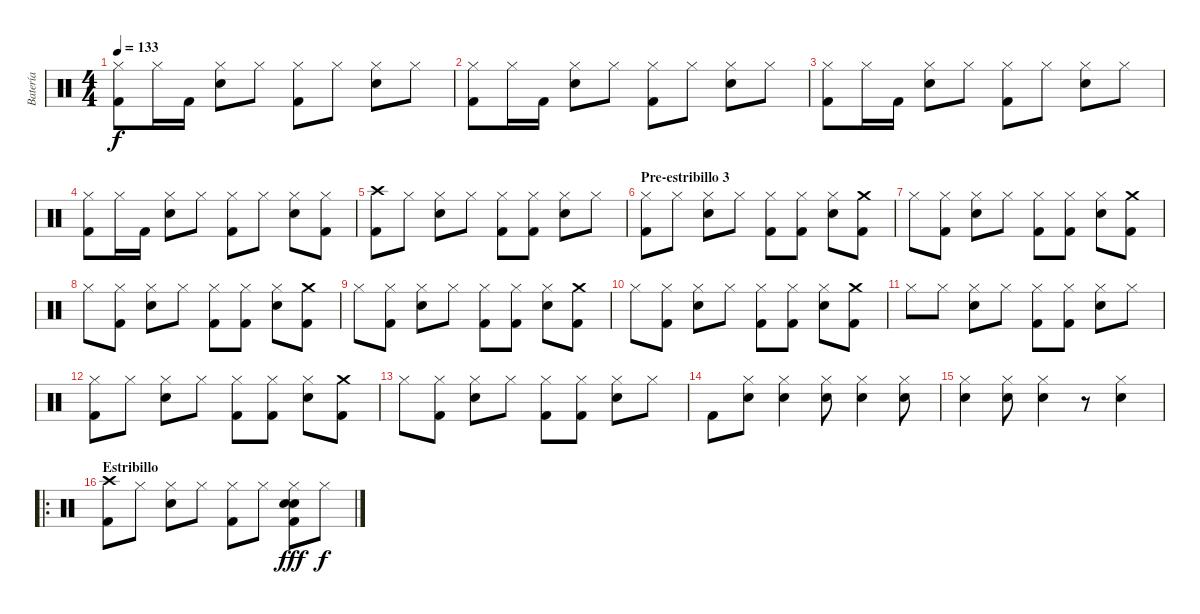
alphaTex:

\track ("Batería" "Batería") {instrument percussion}
\staff {score}
\articulation defaults
\ts (4 4)
\tempo 133
\clef neutral
\ks c
("Hi-Hat (closed)" "Kick (hit) 2").8{dy f} "Hi-Hat (closed)".16 "Kick (hit) 2".16 ("Hi-Hat (closed)" "Snare (hit) 2").8 "Hi-Hat (closed)".8 ("Hi-Hat (closed)" "Kick (hit) 2").8 "Hi-Hat (closed)".8 ("Hi-Hat (closed)" "Snare (hit) 2").8 "Hi-Hat (closed)".8 |
("Hi-Hat (closed)" "Kick (hit) 2").8 "Hi-Hat (closed)".16 "Kick (hit) 2".16 ("Hi-Hat (closed)" "Snare (hit) 2").8 "Hi-Hat (closed)".8 ("Hi-Hat (closed)" "Kick (hit) 2").8 "Hi-Hat (closed)".8 ("Hi-Hat (closed)" "Snare (hit) 2").8 "Hi-Hat (closed)".8 |
("Hi-Hat (closed)" "Kick (hit) 2").8 "Hi-Hat (closed)".16 "Kick (hit) 2".16 ("Hi-Hat (closed)" "Snare (hit) 2").8 "Hi-Hat (closed)".8 ("Hi-Hat (closed)" "Kick (hit) 2").8 "Hi-Hat (closed)".8 ("Hi-Hat (closed)" "Snare (hit) 2").8 "Hi-Hat (closed)".8 |
("Hi-Hat (closed)" "Kick (hit) 2").8 "Hi-Hat (closed)".16 "Kick (hit) 2".16 ("Hi-Hat (closed)" "Snare (hit) 2").8 "Hi-Hat (closed)".8 ("Hi-Hat (closed)" "Kick (hit) 2").8 "Hi-Hat (closed)".8 ("Hi-Hat (closed)" "Snare (hit) 2").8 ("Hi-Hat (closed)" "Kick (hit) 2").8 |
("Crash high (hit)" "Kick (hit) 2").8 "Hi-Hat (closed)".8 ("Hi-Hat (closed)" "Snare (hit) 2").8 "Hi-Hat (closed)".8 ("Hi-Hat (closed)" "Kick (hit) 2").8 ("Hi-Hat (closed)" "Kick (hit) 2").8 ("Hi-Hat (closed)" "Snare (hit) 2").8 "Hi-Hat (closed)".8 |
\section ("" "Pre-estribillo 3")
("Hi-Hat (closed)" "Kick (hit) 2").8 "Hi-Hat (closed)".8 ("Hi-Hat (closed)" "Snare (hit) 2").8 "Hi-Hat (closed)".8 ("Hi-Hat (closed)" "Kick (hit) 2").8 ("Hi-Hat (closed)" "Kick (hit) 2").8 ("Hi-Hat (closed)" "Snare (hit) 2").8 ("Crash medium (hit)" "Kick (hit) 2").8 |
"Hi-Hat (closed)".8 ("Hi-Hat (closed)" "Kick (hit) 2").8 ("Hi-Hat (closed)" "Snare (hit) 2").8 "Hi-Hat (closed)".8 ("Hi-Hat (closed)" "Kick (hit) 2").8 ("Hi-Hat (closed)" "Kick (hit) 2").8 ("Hi-Hat (closed)" "Snare (hit) 2").8 ("Crash medium (hit)" "Kick (hit) 2").8 |
"Hi-Hat (closed)".8 ("Hi-Hat (closed)" "Kick (hit) 2").8 ("Hi-Hat (closed)" "Snare (hit) 2").8 "Hi-Hat (closed)".8 ("Hi-Hat (closed)" "Kick (hit) 2").8 ("Hi-Hat (closed)" "Kick (hit) 2").8 ("Hi-Hat (closed)" "Snare (hit) 2").8 ("Crash medium (hit)" "Kick (hit) 2").8 |
"Hi-Hat (closed)".8 ("Hi-Hat (closed)" "Kick (hit) 2").8 ("Hi-Hat (closed)" "Snare (hit) 2").8 "Hi-Hat (closed)".8 ("Hi-Hat (closed)" "Kick (hit) 2").8 ("Hi-Hat (closed)" "Kick (hit) 2").8 ("Hi-Hat (closed)" "Snare (hit) 2").8 ("Crash medium (hit)" "Kick (hit) 2").8 |
"Hi-Hat (closed)".8 ("Hi-Hat (closed)" "Kick (hit) 2").8 ("Hi-Hat (closed)" "Snare (hit) 2").8 "Hi-Hat (closed)".8 ("Hi-Hat (closed)" "Kick (hit) 2").8 ("Hi-Hat (closed)" "Kick (hit) 2").8 ("Hi-Hat (closed)" "Snare (hit) 2").8 ("Crash medium (hit)" "Kick (hit) 2").8 |
"Hi-Hat (closed)".8 "Hi-Hat (closed)".8 ("Hi-Hat (closed)" "Snare (hit) 2").8 "Hi-Hat (closed)".8 ("Hi-Hat (closed)" "Kick (hit) 2").8 ("Hi-Hat (closed)" "Kick (hit) 2").8 ("Hi-Hat (closed)" "Snare (hit) 2").8 "Hi-Hat (closed)".8 |
("Hi-Hat (closed)" "Kick (hit) 2").8 "Hi-Hat (closed)".8 ("Hi-Hat (closed)" "Snare (hit) 2").8 "Hi-Hat (closed)".8 ("Hi-Hat (closed)" "Kick (hit) 2").8 ("Hi-Hat (closed)" "Kick (hit) 2").8 ("Hi-Hat (closed)" "Snare (hit) 2").8 ("Crash medium (hit)" "Kick (hit) 2").8 |
"Hi-Hat (closed)".8 ("Hi-Hat (closed)" "Kick (hit) 2").8 ("Hi-Hat (closed)" "Snare (hit) 2").8 "Hi-Hat (closed)".8 ("Hi-Hat (closed)" "Kick (hit) 2").8 ("Hi-Hat (closed)" "Kick (hit) 2").8 ("Hi-Hat (closed)" "Snare (hit) 2").8 "Hi-Hat (closed)".8 |
"Kick (hit) 2".8 ("Hi-Hat (closed)" "Snare (hit) 2").8 ("Hi-Hat (closed)" "Snare (hit) 2").4 ("Hi-Hat (closed)" "Snare (hit) 2").8 ("Hi-Hat (closed)" "Snare (hit) 2").4 ("Hi-Hat (closed)" "Snare (hit) 2").8 |
("Hi-Hat (closed)" "Snare (hit) 2").4 ("Hi-Hat (closed)" "Snare (hit) 2").8 ("Hi-Hat (closed)" "Snare (hit) 2").4 r.8 ("Hi-Hat (closed)" "Snare (hit) 2").4 |
\ro
\section ("" "Estribillo")
("Crash high (hit)" "Kick (hit) 2").8 "Hi-Hat (closed)".8 ("Hi-Hat (closed)" "Snare (hit) 2").8 "Hi-Hat (closed)".8 ("Hi-Hat (closed)" "Kick (hit) 2").8 "Hi-Hat (closed)".8 ("Hi-Hat (closed)" "Snare (hit) 2" "Snare (hit) 2" "Kick (hit) 2").8{dy fff} "Hi-Hat (closed)".8{dy f}
